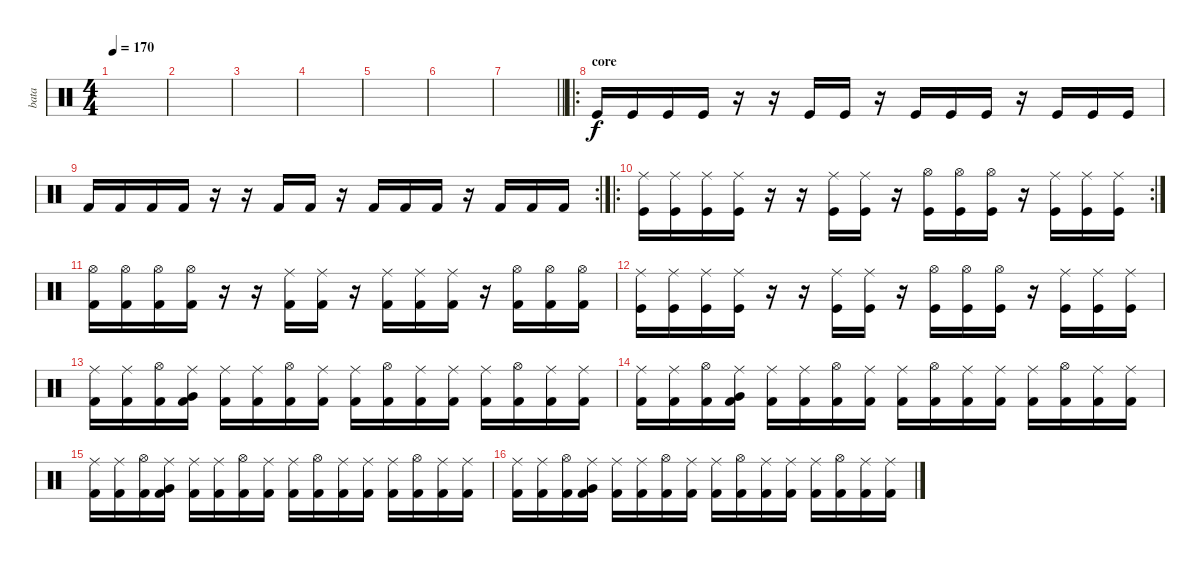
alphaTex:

\track ("bata" "bata") {instrument percussion}
\staff {score}
\articulation defaults
\ts (4 4)
\tempo 170
\clef neutral
\ks c
|
|
|
|
|
|
\barLineRight lightlight
|
\ro
\section ("" "core")
"Kick (hit)".16 "Kick (hit)".16 "Kick (hit)".16 "Kick (hit)".16 r.16 r.16 "Kick (hit)".16 "Kick (hit)".16 r.16 "Kick (hit)".16 "Kick (hit)".16 "Kick (hit)".16 r.16 "Kick (hit)".16 "Kick (hit)".16 "Kick (hit)".16 |
\rc 2 "Kick (hit) 2".16 "Kick (hit) 2".16 "Kick (hit) 2".16 "Kick (hit) 2".16
r.16 r.16 "Kick (hit) 2".16 "Kick (hit) 2".16 r.16 "Kick (hit) 2".16 "Kick (hit) 2".16 "Kick (hit) 2".16 r.16 "Kick (hit) 2".16 "Kick (hit) 2".16 "Kick (hit) 2".16 |
\ro
\rc 2
("Kick (hit)" "Ride (middle)").16 ("Kick (hit)" "Ride (middle)").16 ("Kick (hit)" "Ride (middle)").16 ("Kick (hit)" "Ride (middle)").16 r.16 r.16 ("Kick (hit)" "Ride (middle)").16 ("Kick (hit)" "Ride (middle)").16 r.16 ("Kick (hit)" "Hi-Hat (open)").16 ("Kick (hit)" "Hi-Hat (open)").16 ("Kick (hit)" "Hi-Hat (open)").16 r.16 ("Kick (hit)" "Ride (middle)").16 ("Kick (hit)" "Ride (middle)").16 ("Kick (hit)" "Ride (middle)").16 |
("Kick (hit) 2" "Hi-Hat (open)").16 ("Kick (hit) 2" "Hi-Hat (open)").16 ("Kick (hit) 2" "Hi-Hat (open)").16 ("Kick (hit) 2" "Hi-Hat (open)").16 r.16 r.16 ("Kick (hit) 2" "Ride (middle)").16 ("Kick (hit) 2" "Ride (middle)").16 r.16 ("Kick (hit) 2" "Ride (middle)").16 ("Kick (hit) 2" "Ride (middle)").16 ("Kick (hit) 2" "Ride (middle)").16 r.16 ("Kick (hit) 2" "Hi-Hat (open)").16 ("Kick (hit) 2" "Hi-Hat (open)").16 ("Kick (hit) 2" "Hi-Hat (open)").16 |
("Kick (hit)" "Ride (middle)").16 ("Kick (hit)" "Ride (middle)").16 ("Kick (hit)" "Ride (middle)").16 ("Kick (hit)" "Ride (middle)").16 r.16 r.16 ("Kick (hit)" "Ride (middle)").16 ("Kick (hit)" "Ride (middle)").16 r.16 ("Kick (hit)" "Hi-Hat (open)").16 ("Kick (hit)" "Hi-Hat (open)").16 ("Kick (hit)" "Hi-Hat (open)").16 r.16 ("Kick (hit)" "Ride (middle)").16 ("Kick (hit)" "Ride (middle)").16 ("Kick (hit)" "Ride (middle)").16 |
("Kick (hit) 2" "Ride (middle)").16 ("Kick (hit) 2" "Ride (middle)").16 ("Kick (hit) 2" "Hi-Hat (open)").16 ("Kick (hit) 2" "Very Low Tom (hit)" "Ride (middle)").16 ("Kick (hit) 2" "Ride (middle)").16 ("Kick (hit) 2" "Ride (middle)").16 ("Kick (hit) 2" "Hi-Hat (open)").16 ("Kick (hit) 2" "Ride (middle)").16 ("Kick (hit) 2" "Ride (middle)").16 ("Kick (hit) 2" "Hi-Hat (open)").16 ("Kick (hit) 2" "Ride (middle)").16 ("Kick (hit) 2" "Ride (middle)").16 ("Kick (hit) 2" "Ride (middle)").16 ("Kick (hit) 2" "Hi-Hat (open)").16 ("Kick (hit) 2" "Ride (middle)").16 ("Kick (hit) 2" "Ride (middle)").16 |
("Kick (hit) 2" "Ride (middle)").16 ("Kick (hit) 2" "Ride (middle)").16 ("Kick (hit) 2" "Hi-Hat (open)").16 ("Kick (hit) 2" "Very Low Tom (hit)" "Ride (middle)").16 ("Kick (hit) 2" "Ride (middle)").16 ("Kick (hit) 2" "Ride (middle)").16 ("Kick (hit) 2" "Hi-Hat (open)").16 ("Kick (hit) 2" "Ride (middle)").16 ("Kick (hit) 2" "Ride (middle)").16 ("Kick (hit) 2" "Hi-Hat (open)").16 ("Kick (hit) 2" "Ride (middle)").16 ("Kick (hit) 2" "Ride (middle)").16 ("Kick (hit) 2" "Ride (middle)").16 ("Kick (hit) 2" "Hi-Hat (open)").16 ("Kick (hit) 2" "Ride (middle)").16 ("Kick (hit) 2" "Ride (middle)").16 |
("Kick (hit) 2" "Ride (middle)").16 ("Kick (hit) 2" "Ride (middle)").16 ("Kick (hit) 2" "Hi-Hat (open)").16 ("Kick (hit) 2" "Very Low Tom (hit)" "Ride (middle)").16 ("Kick (hit) 2" "Ride (middle)").16 ("Kick (hit) 2" "Ride (middle)").16 ("Kick (hit) 2" "Hi-Hat (open)").16 ("Kick (hit) 2" "Ride (middle)").16 ("Kick (hit) 2" "Ride (middle)").16 ("Kick (hit) 2" "Hi-Hat (open)").16 ("Kick (hit) 2" "Ride (middle)").16 ("Kick (hit) 2" "Ride (middle)").16 ("Kick (hit) 2" "Ride (middle)").16 ("Kick (hit) 2" "Hi-Hat (open)").16 ("Kick (hit) 2" "Ride (middle)").16 ("Kick (hit) 2" "Ride (middle)").16 |
("Kick (hit) 2" "Ride (middle)").16 ("Kick (hit) 2" "Ride (middle)").16 ("Kick (hit) 2" "Hi-Hat (open)").16 ("Kick (hit) 2" "Very Low Tom (hit)" "Ride (middle)").16 ("Kick (hit) 2" "Ride (middle)").16 ("Kick (hit) 2" "Ride (middle)").16 ("Kick (hit) 2" "Hi-Hat (open)").16 ("Kick (hit) 2" "Ride (middle)").16 ("Kick (hit) 2" "Ride (middle)").16 ("Kick (hit) 2" "Hi-Hat (open)").16 ("Kick (hit) 2" "Ride (middle)").16 ("Kick (hit) 2" "Ride (middle)").16 ("Kick (hit) 2" "Ride (middle)").16 ("Kick (hit) 2" "Hi-Hat (open)").16 ("Kick (hit) 2" "Ride (middle)").16 ("Kick (hit) 2" "Ride (middle)").16
